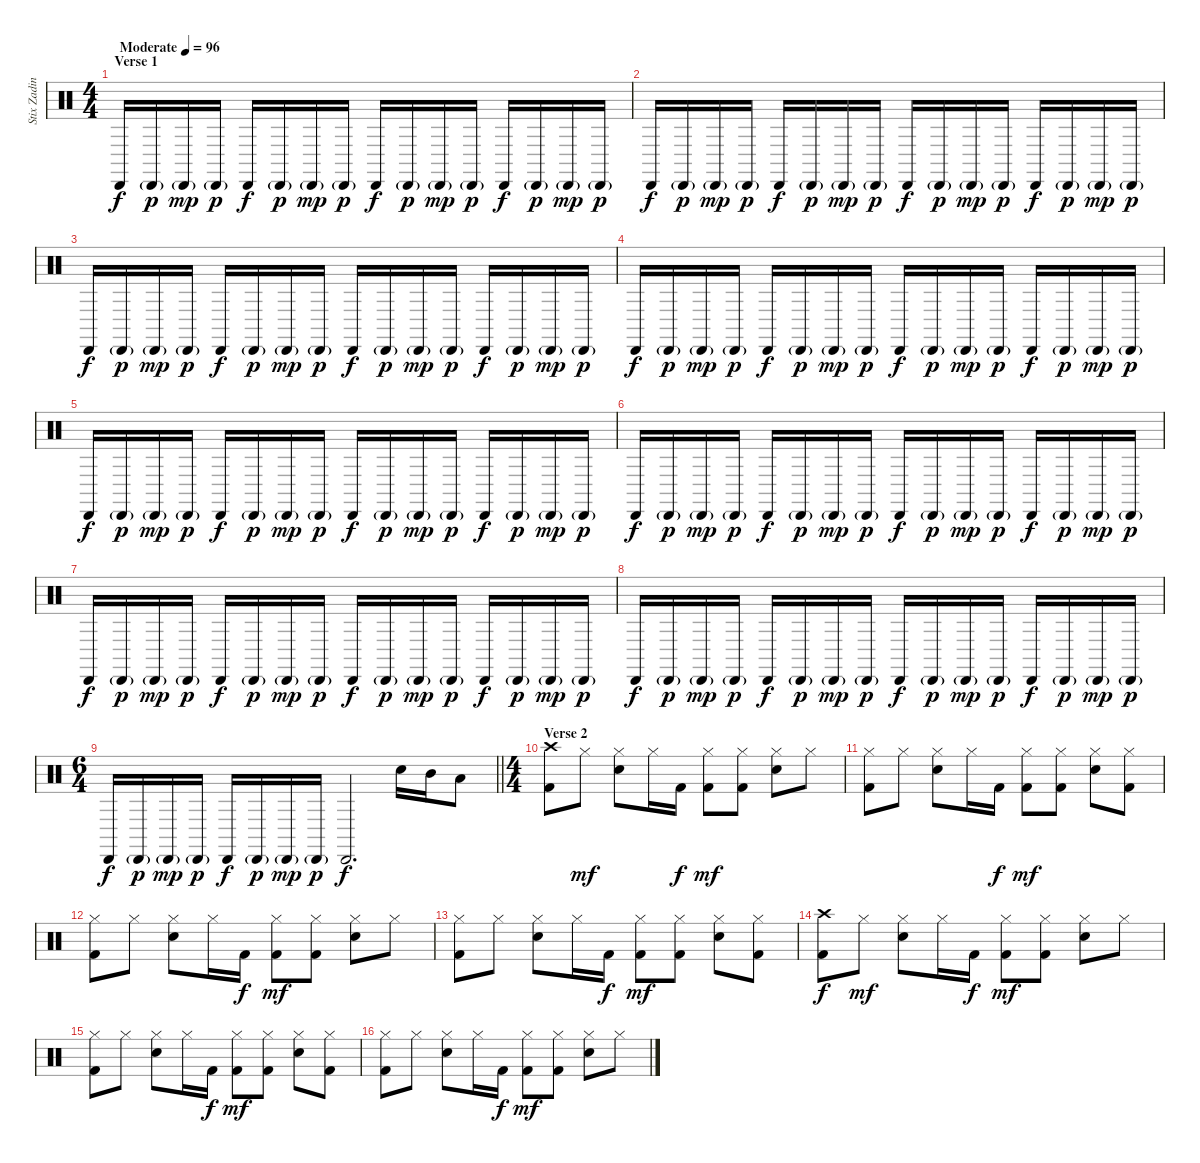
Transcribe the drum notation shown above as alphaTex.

\track ("Stix Zadinia" "Stix Zadin") {instrument percussion}
\staff {score}
\articulation defaults
\ts (4 4)
\section ("" "Verse 1")
\tempo (96 "Moderate")
\clef neutral
\ks c "Cabasa (hit)".16{dy f volume 10} "Cabasa (hit)"{g}.16{dy p} "Cabasa (hit)"{g}.16{dy mp} "Cabasa (hit)"{g}.16{dy p} "Cabasa (hit)".16{dy f} "Cabasa (hit)"{g}.16{dy p} "Cabasa (hit)"{g}.16{dy mp} "Cabasa (hit)"{g}.16{dy p} "Cabasa (hit)".16{dy f} "Cabasa (hit)"{g}.16{dy p} "Cabasa (hit)"{g}.16{dy mp} "Cabasa (hit)"{g}.16{dy p} "Cabasa (hit)".16{dy f} "Cabasa (hit)"{g}.16{dy p} "Cabasa (hit)"{g}.16{dy mp} "Cabasa (hit)"{g}.16{dy p}
|
"Cabasa (hit)".16{dy f} "Cabasa (hit)"{g}.16{dy p} "Cabasa (hit)"{g}.16{dy mp} "Cabasa (hit)"{g}.16{dy p} "Cabasa (hit)".16{dy f} "Cabasa (hit)"{g}.16{dy p} "Cabasa (hit)"{g}.16{dy mp} "Cabasa (hit)"{g}.16{dy p} "Cabasa (hit)".16{dy f} "Cabasa (hit)"{g}.16{dy p} "Cabasa (hit)"{g}.16{dy mp} "Cabasa (hit)"{g}.16{dy p} "Cabasa (hit)".16{dy f} "Cabasa (hit)"{g}.16{dy p} "Cabasa (hit)"{g}.16{dy mp} "Cabasa (hit)"{g}.16{dy p} |
"Cabasa (hit)".16{dy f} "Cabasa (hit)"{g}.16{dy p} "Cabasa (hit)"{g}.16{dy mp} "Cabasa (hit)"{g}.16{dy p} "Cabasa (hit)".16{dy f} "Cabasa (hit)"{g}.16{dy p} "Cabasa (hit)"{g}.16{dy mp} "Cabasa (hit)"{g}.16{dy p} "Cabasa (hit)".16{dy f} "Cabasa (hit)"{g}.16{dy p} "Cabasa (hit)"{g}.16{dy mp} "Cabasa (hit)"{g}.16{dy p} "Cabasa (hit)".16{dy f} "Cabasa (hit)"{g}.16{dy p} "Cabasa (hit)"{g}.16{dy mp} "Cabasa (hit)"{g}.16{dy p} |
"Cabasa (hit)".16{dy f} "Cabasa (hit)"{g}.16{dy p} "Cabasa (hit)"{g}.16{dy mp} "Cabasa (hit)"{g}.16{dy p} "Cabasa (hit)".16{dy f} "Cabasa (hit)"{g}.16{dy p} "Cabasa (hit)"{g}.16{dy mp} "Cabasa (hit)"{g}.16{dy p} "Cabasa (hit)".16{dy f} "Cabasa (hit)"{g}.16{dy p} "Cabasa (hit)"{g}.16{dy mp} "Cabasa (hit)"{g}.16{dy p} "Cabasa (hit)".16{dy f} "Cabasa (hit)"{g}.16{dy p} "Cabasa (hit)"{g}.16{dy mp} "Cabasa (hit)"{g}.16{dy p} |
"Cabasa (hit)".16{dy f} "Cabasa (hit)"{g}.16{dy p} "Cabasa (hit)"{g}.16{dy mp} "Cabasa (hit)"{g}.16{dy p} "Cabasa (hit)".16{dy f} "Cabasa (hit)"{g}.16{dy p} "Cabasa (hit)"{g}.16{dy mp} "Cabasa (hit)"{g}.16{dy p} "Cabasa (hit)".16{dy f} "Cabasa (hit)"{g}.16{dy p} "Cabasa (hit)"{g}.16{dy mp} "Cabasa (hit)"{g}.16{dy p} "Cabasa (hit)".16{dy f} "Cabasa (hit)"{g}.16{dy p} "Cabasa (hit)"{g}.16{dy mp} "Cabasa (hit)"{g}.16{dy p} |
"Cabasa (hit)".16{dy f} "Cabasa (hit)"{g}.16{dy p} "Cabasa (hit)"{g}.16{dy mp} "Cabasa (hit)"{g}.16{dy p} "Cabasa (hit)".16{dy f} "Cabasa (hit)"{g}.16{dy p} "Cabasa (hit)"{g}.16{dy mp} "Cabasa (hit)"{g}.16{dy p} "Cabasa (hit)".16{dy f} "Cabasa (hit)"{g}.16{dy p} "Cabasa (hit)"{g}.16{dy mp} "Cabasa (hit)"{g}.16{dy p} "Cabasa (hit)".16{dy f} "Cabasa (hit)"{g}.16{dy p} "Cabasa (hit)"{g}.16{dy mp} "Cabasa (hit)"{g}.16{dy p} |
"Cabasa (hit)".16{dy f} "Cabasa (hit)"{g}.16{dy p} "Cabasa (hit)"{g}.16{dy mp} "Cabasa (hit)"{g}.16{dy p} "Cabasa (hit)".16{dy f} "Cabasa (hit)"{g}.16{dy p} "Cabasa (hit)"{g}.16{dy mp} "Cabasa (hit)"{g}.16{dy p} "Cabasa (hit)".16{dy f} "Cabasa (hit)"{g}.16{dy p} "Cabasa (hit)"{g}.16{dy mp} "Cabasa (hit)"{g}.16{dy p} "Cabasa (hit)".16{dy f} "Cabasa (hit)"{g}.16{dy p} "Cabasa (hit)"{g}.16{dy mp} "Cabasa (hit)"{g}.16{dy p} |
"Cabasa (hit)".16{dy f} "Cabasa (hit)"{g}.16{dy p} "Cabasa (hit)"{g}.16{dy mp} "Cabasa (hit)"{g}.16{dy p} "Cabasa (hit)".16{dy f} "Cabasa (hit)"{g}.16{dy p} "Cabasa (hit)"{g}.16{dy mp} "Cabasa (hit)"{g}.16{dy p} "Cabasa (hit)".16{dy f} "Cabasa (hit)"{g}.16{dy p} "Cabasa (hit)"{g}.16{dy mp} "Cabasa (hit)"{g}.16{dy p} "Cabasa (hit)".16{dy f} "Cabasa (hit)"{g}.16{dy p} "Cabasa (hit)"{g}.16{dy mp} "Cabasa (hit)"{g}.16{dy p} |
\ts (6 4)
\barLineRight lightlight "Cabasa (hit)".16{dy f} "Cabasa (hit)"{g}.16{dy p} "Cabasa (hit)"{g}.16{dy mp} "Cabasa (hit)"{g}.16{dy p} "Cabasa (hit)".16{dy f} "Cabasa (hit)"{g}.16{dy p} "Cabasa (hit)"{g}.16{dy mp} "Cabasa (hit)"{g}.16{dy p} "Cabasa (hit)".2{d dy f} "Electric Snare (hit)".16{volume 13} "Mid Tom (hit)".16 "Low Tom (hit)".8
|
\ts (4 4)
\section ("" "Verse 2")
("Crash high (hit)" "Kick (hit) 2").8 "Hi-Hat (closed)".8{dy mf} ("Hi-Hat (closed)" "Electric Snare (hit)").8 "Hi-Hat (closed)".16 "Kick (hit) 2".16{dy f} ("Hi-Hat (closed)" "Kick (hit) 2").8{dy mf} ("Hi-Hat (closed)" "Kick (hit) 2").8 ("Hi-Hat (closed)" "Electric Snare (hit)").8 "Hi-Hat (closed)".8 |
("Hi-Hat (closed)" "Kick (hit) 2").8 "Hi-Hat (closed)".8 ("Hi-Hat (closed)" "Electric Snare (hit)").8 "Hi-Hat (closed)".16 "Kick (hit) 2".16{dy f} ("Hi-Hat (closed)" "Kick (hit) 2").8{dy mf} ("Hi-Hat (closed)" "Kick (hit) 2").8 ("Hi-Hat (closed)" "Electric Snare (hit)").8 ("Hi-Hat (closed)" "Kick (hit) 2").8 |
("Hi-Hat (closed)" "Kick (hit) 2").8 "Hi-Hat (closed)".8 ("Hi-Hat (closed)" "Electric Snare (hit)").8 "Hi-Hat (closed)".16 "Kick (hit) 2".16{dy f} ("Hi-Hat (closed)" "Kick (hit) 2").8{dy mf} ("Hi-Hat (closed)" "Kick (hit) 2").8 ("Hi-Hat (closed)" "Electric Snare (hit)").8 "Hi-Hat (closed)".8 |
("Hi-Hat (closed)" "Kick (hit) 2").8 "Hi-Hat (closed)".8 ("Hi-Hat (closed)" "Electric Snare (hit)").8 "Hi-Hat (closed)".16 "Kick (hit) 2".16{dy f} ("Hi-Hat (closed)" "Kick (hit) 2").8{dy mf} ("Hi-Hat (closed)" "Kick (hit) 2").8 ("Hi-Hat (closed)" "Electric Snare (hit)").8 ("Hi-Hat (closed)" "Kick (hit) 2").8 |
("Crash high (hit)" "Kick (hit) 2").8{dy f} "Hi-Hat (closed)".8{dy mf} ("Hi-Hat (closed)" "Electric Snare (hit)").8 "Hi-Hat (closed)".16 "Kick (hit) 2".16{dy f} ("Hi-Hat (closed)" "Kick (hit) 2").8{dy mf} ("Hi-Hat (closed)" "Kick (hit) 2").8 ("Hi-Hat (closed)" "Electric Snare (hit)").8 "Hi-Hat (closed)".8 |
("Hi-Hat (closed)" "Kick (hit) 2").8 "Hi-Hat (closed)".8 ("Hi-Hat (closed)" "Electric Snare (hit)").8 "Hi-Hat (closed)".16 "Kick (hit) 2".16{dy f} ("Hi-Hat (closed)" "Kick (hit) 2").8{dy mf} ("Hi-Hat (closed)" "Kick (hit) 2").8 ("Hi-Hat (closed)" "Electric Snare (hit)").8 ("Hi-Hat (closed)" "Kick (hit) 2").8 |
("Hi-Hat (closed)" "Kick (hit) 2").8 "Hi-Hat (closed)".8 ("Hi-Hat (closed)" "Electric Snare (hit)").8 "Hi-Hat (closed)".16 "Kick (hit) 2".16{dy f} ("Hi-Hat (closed)" "Kick (hit) 2").8{dy mf} ("Hi-Hat (closed)" "Kick (hit) 2").8 ("Hi-Hat (closed)" "Electric Snare (hit)").8 "Hi-Hat (closed)".8
